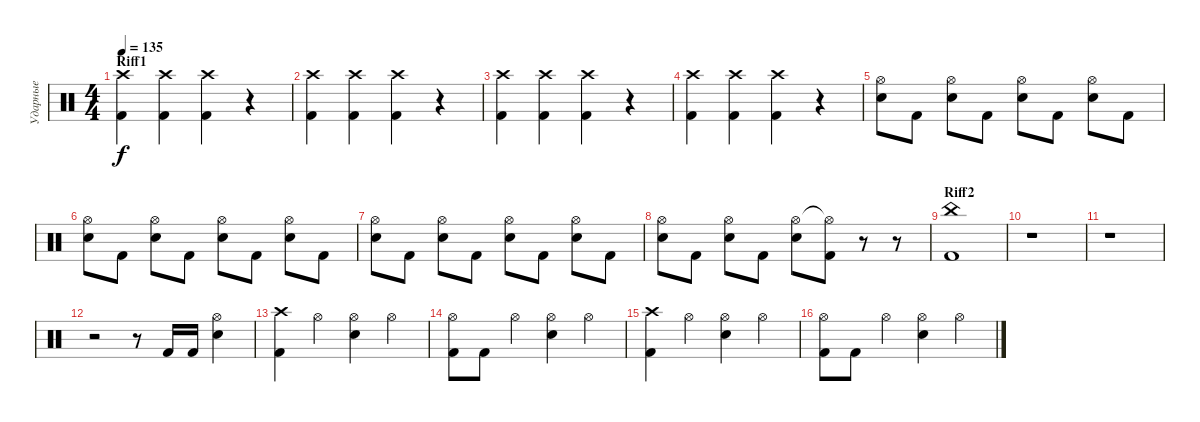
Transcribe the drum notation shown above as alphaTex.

\track ("Ударные" "Ударные") {instrument percussion}
\staff {score}
\articulation defaults
\ts (4 4)
\section ("" "Riff1")
\tempo 135
\clef neutral
\ks c
("Crash high (hit)" "Kick (hit) 2").4{dy f} ("Crash high (hit)" "Kick (hit) 2").4 ("Crash high (hit)" "Kick (hit) 2").4 r.4 |
("Crash high (hit)" "Kick (hit) 2").4 ("Crash high (hit)" "Kick (hit) 2").4 ("Crash high (hit)" "Kick (hit) 2").4 r.4 |
("Crash high (hit)" "Kick (hit) 2").4 ("Crash high (hit)" "Kick (hit) 2").4 ("Crash high (hit)" "Kick (hit) 2").4 r.4 |
("Crash high (hit)" "Kick (hit) 2").4 ("Crash high (hit)" "Kick (hit) 2").4 ("Crash high (hit)" "Kick (hit) 2").4 r.4 |
("Hi-Hat (open)" "Electric Snare (hit)").8 "Kick (hit) 2".8 ("Hi-Hat (open)" "Electric Snare (hit)").8 "Kick (hit) 2".8 ("Hi-Hat (open)" "Electric Snare (hit)").8 "Kick (hit) 2".8 ("Hi-Hat (open)" "Electric Snare (hit)").8 "Kick (hit) 2".8 |
("Hi-Hat (open)" "Electric Snare (hit)").8 "Kick (hit) 2".8 ("Hi-Hat (open)" "Electric Snare (hit)").8 "Kick (hit) 2".8 ("Hi-Hat (open)" "Electric Snare (hit)").8 "Kick (hit) 2".8 ("Hi-Hat (open)" "Electric Snare (hit)").8 "Kick (hit) 2".8 |
("Hi-Hat (open)" "Electric Snare (hit)").8 "Kick (hit) 2".8 ("Hi-Hat (open)" "Electric Snare (hit)").8 "Kick (hit) 2".8 ("Hi-Hat (open)" "Electric Snare (hit)").8 "Kick (hit) 2".8 ("Hi-Hat (open)" "Electric Snare (hit)").8 "Kick (hit) 2".8 |
("Hi-Hat (open)" "Electric Snare (hit)").8 "Kick (hit) 2".8 ("Hi-Hat (open)" "Electric Snare (hit)").8 "Kick (hit) 2".8 ("Hi-Hat (open)" "Electric Snare (hit)").8 ("Hi-Hat (open)"{t} "Kick (hit) 2").8 r.8 r.8 |
\section ("" "Riff2")
("China (hit)" "Kick (hit) 2").1 |
r.1 |
r.1 |
r.2 r.8 "Kick (hit) 2".16 "Kick (hit) 2".16 ("Hi-Hat (open)" "Electric Snare (hit)").4 |
("Crash high (hit)" "Kick (hit) 2").4 "Hi-Hat (open)".4 ("Hi-Hat (open)" "Electric Snare (hit)").4 "Hi-Hat (open)".4 |
("Hi-Hat (open)" "Kick (hit) 2").8 "Kick (hit) 2".8 "Hi-Hat (open)".4 ("Hi-Hat (open)" "Electric Snare (hit)").4 "Hi-Hat (open)".4 |
("Crash high (hit)" "Kick (hit) 2").4 "Hi-Hat (open)".4 ("Hi-Hat (open)" "Electric Snare (hit)").4 "Hi-Hat (open)".4 |
("Hi-Hat (open)" "Kick (hit) 2").8 "Kick (hit) 2".8 "Hi-Hat (open)".4 ("Hi-Hat (open)" "Electric Snare (hit)").4 "Hi-Hat (open)".4
